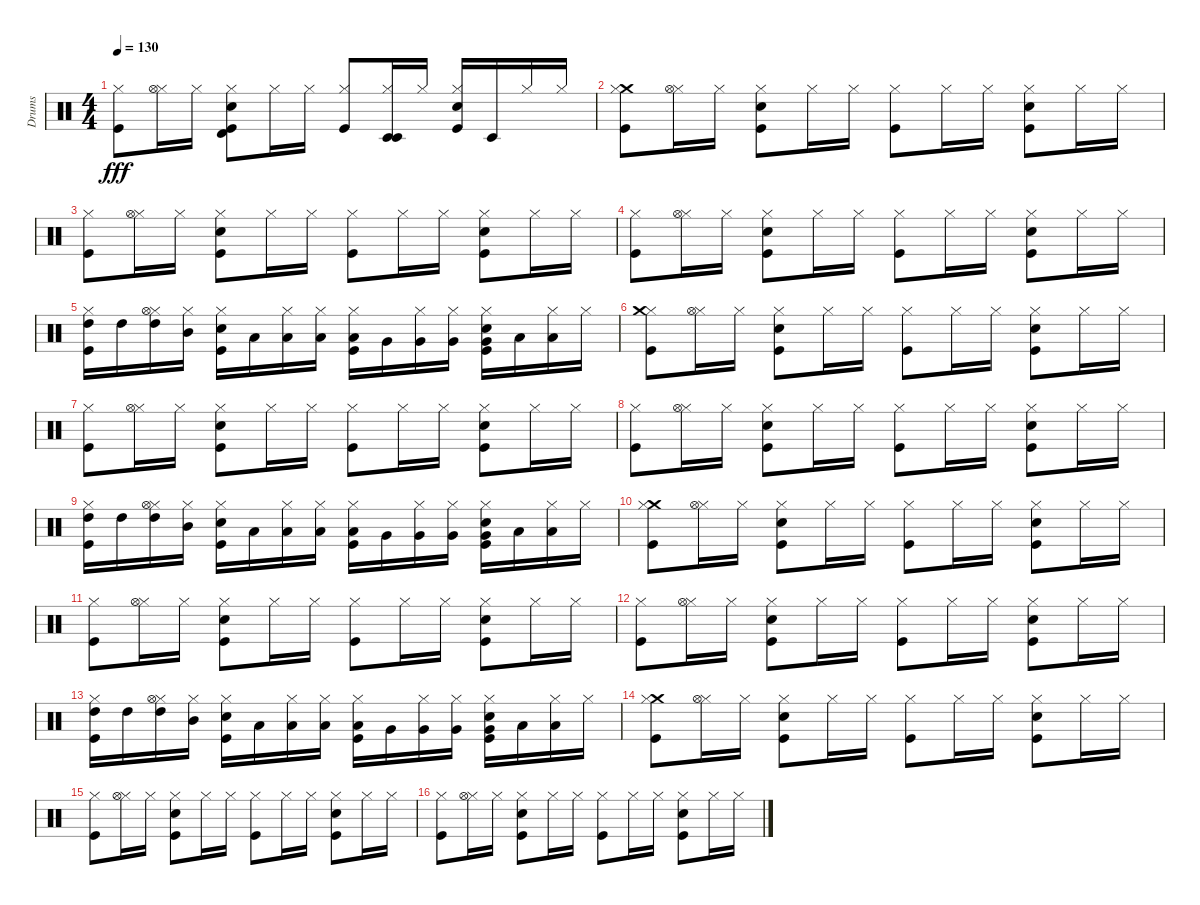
\track ("Drums" "Drums") {instrument percussion}
\staff {score}
\articulation defaults
\ts (4 4)
\tempo 130
\clef neutral
\ks c
("Kick (hit)" "Hi-Hat (closed)").8{dy fff} ("Hi-Hat (closed)" "Hi-Hat (open)").16 "Hi-Hat (closed)".16 ("Kick (hit)" "Electric Snare (hit)" "Hi-Hat (closed)" "Timbale high (hit)").8 "Hi-Hat (closed)".16 "Hi-Hat (closed)".16 ("Kick (hit)" "Hi-Hat (closed)").8 ("Hi-Hat (closed)" "Timbale low (hit)" "Timbale low (hit)").16 "Hi-Hat (closed)".16 ("Kick (hit)" "Electric Snare (hit)" "Hi-Hat (closed)").16 "Timbale low (hit)".16 "Hi-Hat (closed)".16 "Hi-Hat (closed)".16 |
("Crash medium (hit)" "Kick (hit)" "Hi-Hat (closed)").8 ("Hi-Hat (closed)" "Hi-Hat (open)").16 "Hi-Hat (closed)".16 ("Kick (hit)" "Electric Snare (hit)" "Hi-Hat (closed)").8 "Hi-Hat (closed)".16 "Hi-Hat (closed)".16 ("Kick (hit)" "Hi-Hat (closed)").8 "Hi-Hat (closed)".16 "Hi-Hat (closed)".16 ("Kick (hit)" "Electric Snare (hit)" "Hi-Hat (closed)").8 "Hi-Hat (closed)".16 "Hi-Hat (closed)".16 |
("Kick (hit)" "Hi-Hat (closed)").8 ("Hi-Hat (closed)" "Hi-Hat (open)").16 "Hi-Hat (closed)".16 ("Kick (hit)" "Electric Snare (hit)" "Hi-Hat (closed)").8 "Hi-Hat (closed)".16 "Hi-Hat (closed)".16 ("Kick (hit)" "Hi-Hat (closed)").8 "Hi-Hat (closed)".16 "Hi-Hat (closed)".16 ("Kick (hit)" "Electric Snare (hit)" "Hi-Hat (closed)").8 "Hi-Hat (closed)".16 "Hi-Hat (closed)".16 |
("Kick (hit)" "Hi-Hat (closed)").8 ("Hi-Hat (closed)" "Hi-Hat (open)").16 "Hi-Hat (closed)".16 ("Kick (hit)" "Electric Snare (hit)" "Hi-Hat (closed)").8 "Hi-Hat (closed)".16 "Hi-Hat (closed)".16 ("Kick (hit)" "Hi-Hat (closed)").8 "Hi-Hat (closed)".16 "Hi-Hat (closed)".16 ("Kick (hit)" "Electric Snare (hit)" "Hi-Hat (closed)").8 "Hi-Hat (closed)".16 "Hi-Hat (closed)".16 |
("Kick (hit)" "Hi-Hat (closed)" "High Tom (hit)").16 "High Tom (hit)".16 ("Hi-Hat (closed)" "Hi-Hat (open)" "High Tom (hit)").16 ("Hi-Hat (closed)" "Mid Tom (hit)").16 ("Kick (hit)" "Electric Snare (hit)" "Hi-Hat (closed)").16 "Low Tom (hit)".16 ("Hi-Hat (closed)" "Low Tom (hit)").16 ("Hi-Hat (closed)" "Low Tom (hit)").16 ("Kick (hit)" "Hi-Hat (closed)" "Low Tom (hit)").16 "Very Low Tom (hit)".16 ("Hi-Hat (closed)" "Very Low Tom (hit)").16 ("Hi-Hat (closed)" "Very Low Tom (hit)").16 ("Kick (hit)" "Electric Snare (hit)" "Hi-Hat (closed)" "Very Low Tom (hit)").16 "Low Floor Tom (hit)".16 ("Low Floor Tom (hit)" "Hi-Hat (closed)").16 "Hi-Hat (closed)".16 |
("Kick (hit)" "Hi-Hat (closed)" "Crash medium (hit)").8 ("Hi-Hat (closed)" "Hi-Hat (open)").16 "Hi-Hat (closed)".16 ("Kick (hit)" "Electric Snare (hit)" "Hi-Hat (closed)").8 "Hi-Hat (closed)".16 "Hi-Hat (closed)".16 ("Kick (hit)" "Hi-Hat (closed)").8 "Hi-Hat (closed)".16 "Hi-Hat (closed)".16 ("Kick (hit)" "Electric Snare (hit)" "Hi-Hat (closed)").8 "Hi-Hat (closed)".16 "Hi-Hat (closed)".16 |
("Kick (hit)" "Hi-Hat (closed)").8 ("Hi-Hat (closed)" "Hi-Hat (open)").16 "Hi-Hat (closed)".16 ("Kick (hit)" "Electric Snare (hit)" "Hi-Hat (closed)").8 "Hi-Hat (closed)".16 "Hi-Hat (closed)".16 ("Kick (hit)" "Hi-Hat (closed)").8 "Hi-Hat (closed)".16 "Hi-Hat (closed)".16 ("Kick (hit)" "Electric Snare (hit)" "Hi-Hat (closed)").8 "Hi-Hat (closed)".16 "Hi-Hat (closed)".16 |
("Kick (hit)" "Hi-Hat (closed)").8 ("Hi-Hat (closed)" "Hi-Hat (open)").16 "Hi-Hat (closed)".16 ("Kick (hit)" "Electric Snare (hit)" "Hi-Hat (closed)").8 "Hi-Hat (closed)".16 "Hi-Hat (closed)".16 ("Kick (hit)" "Hi-Hat (closed)").8 "Hi-Hat (closed)".16 "Hi-Hat (closed)".16 ("Kick (hit)" "Electric Snare (hit)" "Hi-Hat (closed)").8 "Hi-Hat (closed)".16 "Hi-Hat (closed)".16 |
("Kick (hit)" "Hi-Hat (closed)" "High Tom (hit)").16 "High Tom (hit)".16 ("Hi-Hat (closed)" "Hi-Hat (open)" "High Tom (hit)").16 ("Hi-Hat (closed)" "Mid Tom (hit)").16 ("Kick (hit)" "Electric Snare (hit)" "Hi-Hat (closed)").16 "Low Tom (hit)".16 ("Hi-Hat (closed)" "Low Tom (hit)").16 ("Hi-Hat (closed)" "Low Tom (hit)").16 ("Kick (hit)" "Hi-Hat (closed)" "Low Tom (hit)").16 "Very Low Tom (hit)".16 ("Hi-Hat (closed)" "Very Low Tom (hit)").16 ("Hi-Hat (closed)" "Very Low Tom (hit)").16 ("Kick (hit)" "Electric Snare (hit)" "Hi-Hat (closed)" "Very Low Tom (hit)").16 "Low Floor Tom (hit)".16 ("Low Floor Tom (hit)" "Hi-Hat (closed)").16 "Hi-Hat (closed)".16 |
("Crash medium (hit)" "Kick (hit)" "Hi-Hat (closed)").8 ("Hi-Hat (closed)" "Hi-Hat (open)").16 "Hi-Hat (closed)".16 ("Kick (hit)" "Electric Snare (hit)" "Hi-Hat (closed)").8 "Hi-Hat (closed)".16 "Hi-Hat (closed)".16 ("Kick (hit)" "Hi-Hat (closed)").8 "Hi-Hat (closed)".16 "Hi-Hat (closed)".16 ("Kick (hit)" "Electric Snare (hit)" "Hi-Hat (closed)").8 "Hi-Hat (closed)".16 "Hi-Hat (closed)".16 |
("Kick (hit)" "Hi-Hat (closed)").8 ("Hi-Hat (closed)" "Hi-Hat (open)").16 "Hi-Hat (closed)".16 ("Kick (hit)" "Electric Snare (hit)" "Hi-Hat (closed)").8 "Hi-Hat (closed)".16 "Hi-Hat (closed)".16 ("Kick (hit)" "Hi-Hat (closed)").8 "Hi-Hat (closed)".16 "Hi-Hat (closed)".16 ("Kick (hit)" "Electric Snare (hit)" "Hi-Hat (closed)").8 "Hi-Hat (closed)".16 "Hi-Hat (closed)".16 |
("Kick (hit)" "Hi-Hat (closed)").8 ("Hi-Hat (closed)" "Hi-Hat (open)").16 "Hi-Hat (closed)".16 ("Kick (hit)" "Electric Snare (hit)" "Hi-Hat (closed)").8 "Hi-Hat (closed)".16 "Hi-Hat (closed)".16 ("Kick (hit)" "Hi-Hat (closed)").8 "Hi-Hat (closed)".16 "Hi-Hat (closed)".16 ("Kick (hit)" "Electric Snare (hit)" "Hi-Hat (closed)").8 "Hi-Hat (closed)".16 "Hi-Hat (closed)".16 |
("Kick (hit)" "Hi-Hat (closed)" "High Tom (hit)").16 "High Tom (hit)".16 ("Hi-Hat (closed)" "Hi-Hat (open)" "High Tom (hit)").16 ("Hi-Hat (closed)" "Mid Tom (hit)").16 ("Kick (hit)" "Electric Snare (hit)" "Hi-Hat (closed)").16 "Low Tom (hit)".16 ("Hi-Hat (closed)" "Low Tom (hit)").16 ("Hi-Hat (closed)" "Low Tom (hit)").16 ("Kick (hit)" "Hi-Hat (closed)" "Low Tom (hit)").16 "Very Low Tom (hit)".16 ("Hi-Hat (closed)" "Very Low Tom (hit)").16 ("Hi-Hat (closed)" "Very Low Tom (hit)").16 ("Kick (hit)" "Electric Snare (hit)" "Hi-Hat (closed)" "Very Low Tom (hit)").16 "Low Floor Tom (hit)".16 ("Low Floor Tom (hit)" "Hi-Hat (closed)").16 "Hi-Hat (closed)".16 |
("Crash medium (hit)" "Kick (hit)" "Hi-Hat (closed)").8 ("Hi-Hat (closed)" "Hi-Hat (open)").16 "Hi-Hat (closed)".16 ("Kick (hit)" "Electric Snare (hit)" "Hi-Hat (closed)").8 "Hi-Hat (closed)".16 "Hi-Hat (closed)".16 ("Kick (hit)" "Hi-Hat (closed)").8 "Hi-Hat (closed)".16 "Hi-Hat (closed)".16 ("Kick (hit)" "Electric Snare (hit)" "Hi-Hat (closed)").8 "Hi-Hat (closed)".16 "Hi-Hat (closed)".16 |
("Kick (hit)" "Hi-Hat (closed)").8 ("Hi-Hat (closed)" "Hi-Hat (open)").16 "Hi-Hat (closed)".16 ("Kick (hit)" "Electric Snare (hit)" "Hi-Hat (closed)").8 "Hi-Hat (closed)".16 "Hi-Hat (closed)".16 ("Kick (hit)" "Hi-Hat (closed)").8 "Hi-Hat (closed)".16 "Hi-Hat (closed)".16 ("Kick (hit)" "Electric Snare (hit)" "Hi-Hat (closed)").8 "Hi-Hat (closed)".16 "Hi-Hat (closed)".16 |
("Kick (hit)" "Hi-Hat (closed)").8 ("Hi-Hat (closed)" "Hi-Hat (open)").16 "Hi-Hat (closed)".16 ("Kick (hit)" "Electric Snare (hit)" "Hi-Hat (closed)").8 "Hi-Hat (closed)".16 "Hi-Hat (closed)".16 ("Kick (hit)" "Hi-Hat (closed)").8 "Hi-Hat (closed)".16 "Hi-Hat (closed)".16 ("Kick (hit)" "Electric Snare (hit)" "Hi-Hat (closed)").8 "Hi-Hat (closed)".16 "Hi-Hat (closed)".16
